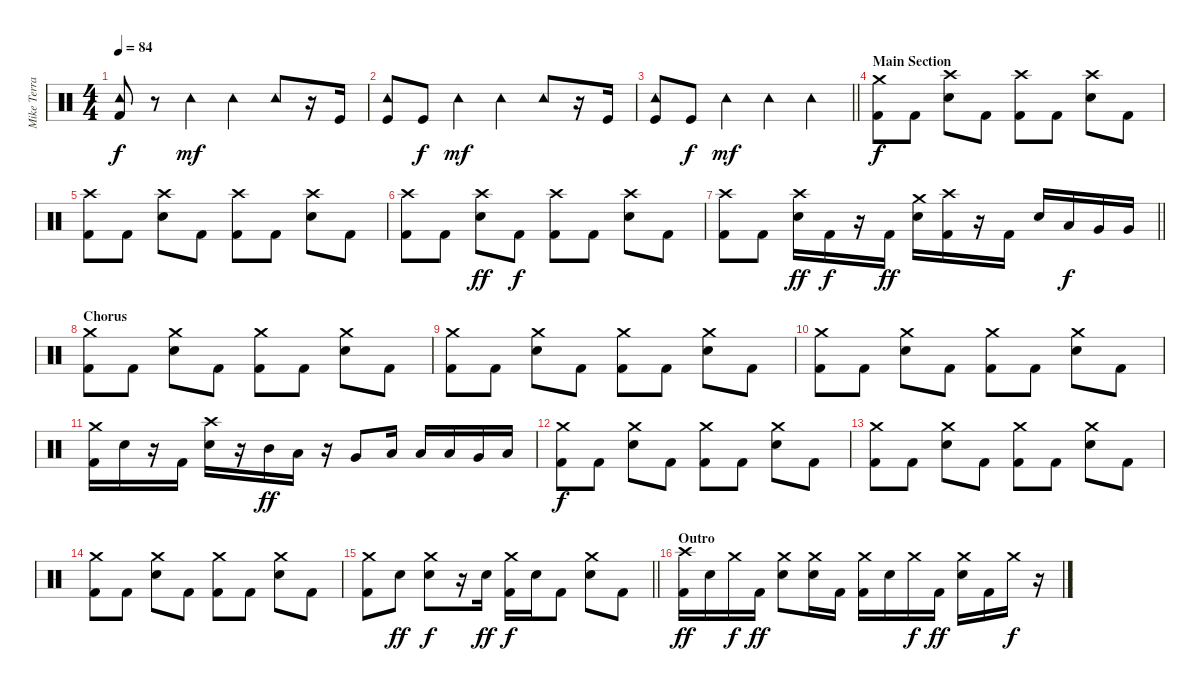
\track ("Mike Terrana" "Mike Terra") {instrument percussion}
\staff {score}
\articulation defaults
\ts (4 4)
\tempo 84
\clef neutral
\ks c
("Tambourine (hit)" "Kick (hit) 2").8{dy f} r.8 "Tambourine (hit)".4{dy mf} "Tambourine (hit)".4 "Tambourine (hit)".8 r.16 "Kick (hit)".16 |
("Tambourine (hit)" "Kick (hit)").8 "Kick (hit)".8{dy f} "Tambourine (hit)".4{dy mf} "Tambourine (hit)".4 "Tambourine (hit)".8 r.16 "Kick (hit)".16 |
\barLineRight lightlight
("Tambourine (hit)" "Kick (hit)").8 "Kick (hit)".8{dy f} "Tambourine (hit)".4{dy mf} "Tambourine (hit)".4 "Tambourine (hit)".4 |
\section ("" "Main Section")
("Crash medium (hit)" "Kick (hit) 2").8{dy f} "Kick (hit) 2".8 ("Crash high (hit)" "Snare (hit) 2").8 "Kick (hit) 2".8 ("Crash high (hit)" "Kick (hit) 2").8 "Kick (hit) 2".8 ("Crash high (hit)" "Snare (hit) 2").8 "Kick (hit) 2".8 |
("Crash high (hit)" "Kick (hit) 2").8 "Kick (hit) 2".8 ("Crash high (hit)" "Snare (hit) 2").8 "Kick (hit) 2".8 ("Crash high (hit)" "Kick (hit) 2").8 "Kick (hit) 2".8 ("Crash high (hit)" "Snare (hit) 2").8 "Kick (hit) 2".8 |
("Crash high (hit)" "Kick (hit) 2").8 "Kick (hit) 2".8 ("Crash high (hit)" "Snare (hit) 2").8{dy ff} "Kick (hit) 2".8{dy f} ("Crash high (hit)" "Kick (hit) 2").8 "Kick (hit) 2".8 ("Crash high (hit)" "Snare (hit) 2").8 "Kick (hit) 2".8 |
\barLineRight lightlight
("Crash high (hit)" "Kick (hit) 2").8 "Kick (hit) 2".8 ("Crash high (hit)" "Snare (hit) 2").16{dy ff} "Kick (hit) 2".16{dy f} r.16 "Kick (hit) 2".16{dy ff} ("Crash medium (hit)" "Snare (hit) 2").16 ("Crash high (hit)" "Kick (hit) 2").16 r.16 "Kick (hit) 2".16 "Snare (hit) 2".16 "Low Tom (hit)".16{dy f} "Very Low Tom (hit)".16 "Very Low Tom (hit)".16 |
\section ("" "Chorus")
("Crash medium (hit)" "Kick (hit) 2").8 "Kick (hit) 2".8 ("Crash medium (hit)" "Snare (hit) 2").8 "Kick (hit) 2".8 ("Crash medium (hit)" "Kick (hit) 2").8 "Kick (hit) 2".8 ("Crash medium (hit)" "Snare (hit) 2").8 "Kick (hit) 2".8 |
("Crash medium (hit)" "Kick (hit) 2").8 "Kick (hit) 2".8 ("Crash medium (hit)" "Snare (hit) 2").8 "Kick (hit) 2".8 ("Crash medium (hit)" "Kick (hit) 2").8 "Kick (hit) 2".8 ("Crash medium (hit)" "Snare (hit) 2").8 "Kick (hit) 2".8 |
("Crash medium (hit)" "Kick (hit) 2").8 "Kick (hit) 2".8 ("Crash medium (hit)" "Snare (hit) 2").8 "Kick (hit) 2".8 ("Crash medium (hit)" "Kick (hit) 2").8 "Kick (hit) 2".8 ("Crash medium (hit)" "Snare (hit) 2").8 "Kick (hit) 2".8 |
("Crash medium (hit)" "Kick (hit) 2").16 "Snare (hit) 2".16 r.16 "Kick (hit) 2".16 ("Crash high (hit)" "Snare (hit) 2").16 r.16 "Mid Tom (hit)".16{dy ff} "Low Tom (hit)".16 r.16 "Very Low Tom (hit)".8 "Low Floor Tom (hit)".16 "Low Tom (hit)".16 "Low Tom (hit)".16 "Very Low Tom (hit)".16 "Low Floor Tom (hit)".16 |
("Crash medium (hit)" "Kick (hit) 2").8{dy f} "Kick (hit) 2".8 ("Crash medium (hit)" "Snare (hit) 2").8 "Kick (hit) 2".8 ("Crash medium (hit)" "Kick (hit) 2").8 "Kick (hit) 2".8 ("Crash medium (hit)" "Snare (hit) 2").8 "Kick (hit) 2".8 |
("Crash medium (hit)" "Kick (hit) 2").8 "Kick (hit) 2".8 ("Crash medium (hit)" "Snare (hit) 2").8 "Kick (hit) 2".8 ("Crash medium (hit)" "Kick (hit) 2").8 "Kick (hit) 2".8 ("Crash medium (hit)" "Snare (hit) 2").8 "Kick (hit) 2".8 |
("Crash medium (hit)" "Kick (hit) 2").8 "Kick (hit) 2".8 ("Crash medium (hit)" "Snare (hit) 2").8 "Kick (hit) 2".8 ("Crash medium (hit)" "Kick (hit) 2").8 "Kick (hit) 2".8 ("Crash medium (hit)" "Snare (hit) 2").8 "Kick (hit) 2".8 |
\barLineRight lightlight
("Crash medium (hit)" "Kick (hit) 2").8 "Snare (hit) 2".8{dy ff} ("Crash medium (hit)" "Snare (hit) 2").8{dy f} r.16 "Snare (hit) 2".16{dy ff} ("Crash medium (hit)" "Kick (hit) 2").16{dy f} "Snare (hit) 2".16 "Kick (hit) 2".8 ("Crash medium (hit)" "Snare (hit) 2").8 "Kick (hit) 2".8 |
\section ("" "Outro")
("Crash high (hit)" "Kick (hit) 2").16{dy ff} "Snare (hit) 2".16 "Crash medium (hit)".16{dy f} "Kick (hit) 2".16{dy ff} ("Crash medium (hit)" "Snare (hit) 2").8 ("Crash medium (hit)" "Snare (hit) 2").16 "Kick (hit) 2".16 ("Crash medium (hit)" "Kick (hit) 2").16 "Snare (hit) 2".16 "Crash medium (hit)".16{dy f} "Kick (hit) 2".16{dy ff} ("Crash medium (hit)" "Snare (hit) 2").16 "Kick (hit) 2".16 "Crash medium (hit)".16{dy f} r.16
